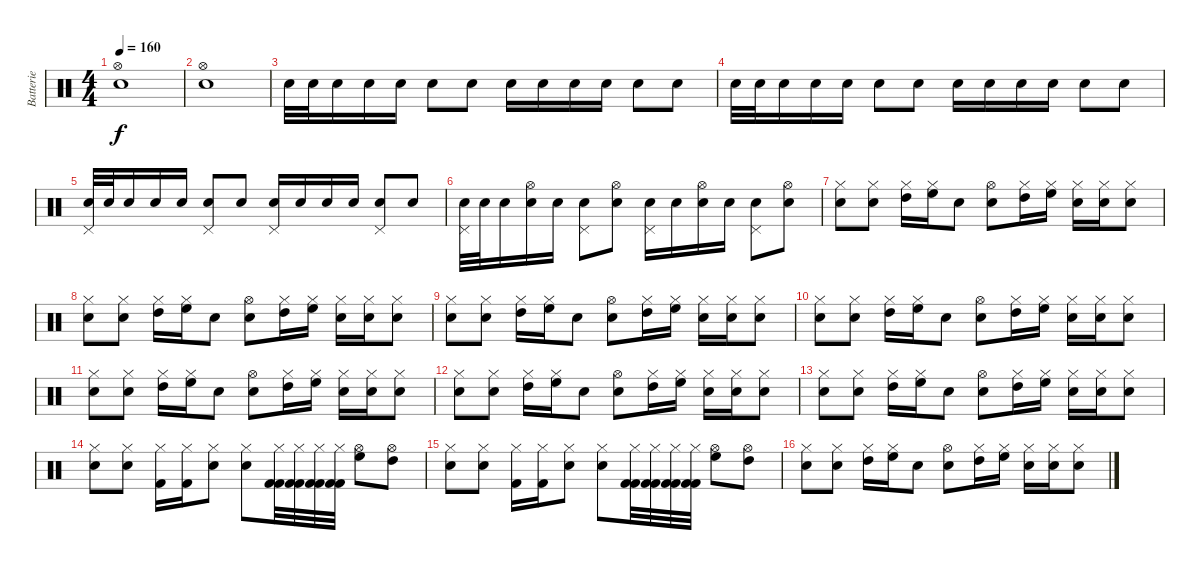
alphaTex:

\track ("Batterie" "Batterie") {instrument percussion}
\staff {score}
\articulation defaults
\ts (4 4)
\tempo 160
\clef neutral
\ks c
("Hi-Hat (open)" "Snare (hit) 2").1{dy f} |
("Hi-Hat (open)" "Snare (hit) 2").1 |
"Snare (hit) 2".32 "Snare (hit) 2".32 "Snare (hit) 2".16 "Snare (hit) 2".16 "Snare (hit) 2".16 "Snare (hit) 2".8 "Snare (hit) 2".8 "Snare (hit) 2".16 "Snare (hit) 2".16 "Snare (hit) 2".16 "Snare (hit) 2".16 "Snare (hit) 2".8 "Snare (hit) 2".8 |
"Snare (hit) 2".32 "Snare (hit) 2".32 "Snare (hit) 2".16 "Snare (hit) 2".16 "Snare (hit) 2".16 "Snare (hit) 2".8 "Snare (hit) 2".8 "Snare (hit) 2".16 "Snare (hit) 2".16 "Snare (hit) 2".16 "Snare (hit) 2".16 "Snare (hit) 2".8 "Snare (hit) 2".8 |
("Pedal Hi-Hat (hit)" "Snare (hit) 2").32 "Snare (hit) 2".32 "Snare (hit) 2".16 "Snare (hit) 2".16 "Snare (hit) 2".16 ("Pedal Hi-Hat (hit)" "Snare (hit) 2").8 "Snare (hit) 2".8 ("Pedal Hi-Hat (hit)" "Snare (hit) 2").16 "Snare (hit) 2".16 "Snare (hit) 2".16 "Snare (hit) 2".16 ("Pedal Hi-Hat (hit)" "Snare (hit) 2").8 "Snare (hit) 2".8 |
("Pedal Hi-Hat (hit)" "Snare (hit) 2").32 "Snare (hit) 2".32 "Snare (hit) 2".16 ("Hi-Hat (open)" "Snare (hit) 2").16 "Snare (hit) 2".16 ("Pedal Hi-Hat (hit)" "Snare (hit) 2").8 ("Hi-Hat (open)" "Snare (hit) 2").8 ("Pedal Hi-Hat (hit)" "Snare (hit) 2").16 "Snare (hit) 2".16 ("Hi-Hat (open)" "Snare (hit) 2").16 "Snare (hit) 2".16 ("Pedal Hi-Hat (hit)" "Snare (hit) 2").8 ("Hi-Hat (open)" "Snare (hit) 2").8 |
("Hi-Hat (closed)" "Snare (hit) 2").8 ("Hi-Hat (closed)" "Snare (hit) 2").8 ("Hi-Hat (closed)" "High Tom (hit)").16 ("Hi-Hat (closed)" "High Floor Tom (hit)").16 "Snare (hit) 2".8 ("Hi-Hat (open)" "Snare (hit) 2").8 ("Hi-Hat (closed)" "High Tom (hit)").16 ("Hi-Hat (closed)" "High Floor Tom (hit)").16 ("Hi-Hat (closed)" "Snare (hit) 2").16 ("Hi-Hat (closed)" "Snare (hit) 2").16 ("Hi-Hat (closed)" "Snare (hit) 2").8 |
("Hi-Hat (closed)" "Snare (hit) 2").8 ("Hi-Hat (closed)" "Snare (hit) 2").8 ("Hi-Hat (closed)" "High Tom (hit)").16 ("Hi-Hat (closed)" "High Floor Tom (hit)").16 "Snare (hit) 2".8 ("Hi-Hat (open)" "Snare (hit) 2").8 ("Hi-Hat (closed)" "High Tom (hit)").16 ("Hi-Hat (closed)" "High Floor Tom (hit)").16 ("Hi-Hat (closed)" "Snare (hit) 2").16 ("Hi-Hat (closed)" "Snare (hit) 2").16 ("Hi-Hat (closed)" "Snare (hit) 2").8 |
("Hi-Hat (closed)" "Snare (hit) 2").8 ("Hi-Hat (closed)" "Snare (hit) 2").8 ("Hi-Hat (closed)" "High Tom (hit)").16 ("Hi-Hat (closed)" "High Floor Tom (hit)").16 "Snare (hit) 2".8 ("Hi-Hat (open)" "Snare (hit) 2").8 ("Hi-Hat (closed)" "High Tom (hit)").16 ("Hi-Hat (closed)" "High Floor Tom (hit)").16 ("Hi-Hat (closed)" "Snare (hit) 2").16 ("Hi-Hat (closed)" "Snare (hit) 2").16 ("Hi-Hat (closed)" "Snare (hit) 2").8 |
("Hi-Hat (closed)" "Snare (hit) 2").8 ("Hi-Hat (closed)" "Snare (hit) 2").8 ("Hi-Hat (closed)" "High Tom (hit)").16 ("Hi-Hat (closed)" "High Floor Tom (hit)").16 "Snare (hit) 2".8 ("Hi-Hat (open)" "Snare (hit) 2").8 ("Hi-Hat (closed)" "High Tom (hit)").16 ("Hi-Hat (closed)" "High Floor Tom (hit)").16 ("Hi-Hat (closed)" "Snare (hit) 2").16 ("Hi-Hat (closed)" "Snare (hit) 2").16 ("Hi-Hat (closed)" "Snare (hit) 2").8 |
("Hi-Hat (closed)" "Snare (hit) 2").8 ("Hi-Hat (closed)" "Snare (hit) 2").8 ("Hi-Hat (closed)" "High Tom (hit)").16 ("Hi-Hat (closed)" "High Floor Tom (hit)").16 "Snare (hit) 2".8 ("Hi-Hat (open)" "Snare (hit) 2").8 ("Hi-Hat (closed)" "High Tom (hit)").16 ("Hi-Hat (closed)" "High Floor Tom (hit)").16 ("Hi-Hat (closed)" "Snare (hit) 2").16 ("Hi-Hat (closed)" "Snare (hit) 2").16 ("Hi-Hat (closed)" "Snare (hit) 2").8 |
("Hi-Hat (closed)" "Snare (hit) 2").8 ("Hi-Hat (closed)" "Snare (hit) 2").8 ("Hi-Hat (closed)" "High Tom (hit)").16 ("Hi-Hat (closed)" "High Floor Tom (hit)").16 "Snare (hit) 2".8 ("Hi-Hat (open)" "Snare (hit) 2").8 ("Hi-Hat (closed)" "High Tom (hit)").16 ("Hi-Hat (closed)" "High Floor Tom (hit)").16 ("Hi-Hat (closed)" "Snare (hit) 2").16 ("Hi-Hat (closed)" "Snare (hit) 2").16 ("Hi-Hat (closed)" "Snare (hit) 2").8 |
("Hi-Hat (closed)" "Snare (hit) 2").8 ("Hi-Hat (closed)" "Snare (hit) 2").8 ("Hi-Hat (closed)" "High Tom (hit)").16 ("Hi-Hat (closed)" "High Floor Tom (hit)").16 "Snare (hit) 2".8 ("Hi-Hat (open)" "Snare (hit) 2").8 ("Hi-Hat (closed)" "High Tom (hit)").16 ("Hi-Hat (closed)" "High Floor Tom (hit)").16 ("Hi-Hat (closed)" "Snare (hit) 2").16 ("Hi-Hat (closed)" "Snare (hit) 2").16 ("Hi-Hat (closed)" "Snare (hit) 2").8 |
("Hi-Hat (closed)" "Snare (hit) 2").8 ("Hi-Hat (closed)" "Snare (hit) 2").8 ("Hi-Hat (closed)" "Kick (hit) 2").16 ("Hi-Hat (closed)" "Kick (hit) 2").16 ("Hi-Hat (closed)" "Snare (hit) 2").8 ("Hi-Hat (closed)" "Snare (hit) 2").8 ("Kick (hit) 2" "Hi-Hat (closed)" "Kick (hit) 2").32 ("Kick (hit) 2" "Hi-Hat (closed)" "Kick (hit) 2").32 ("Kick (hit) 2" "Hi-Hat (closed)" "Kick (hit) 2").32 ("Kick (hit) 2" "Hi-Hat (closed)" "Kick (hit) 2").32 ("Hi-Hat (open)" "High Floor Tom (hit)").8 ("Hi-Hat (open)" "High Tom (hit)").8 |
("Hi-Hat (closed)" "Snare (hit) 2").8 ("Hi-Hat (closed)" "Snare (hit) 2").8 ("Hi-Hat (closed)" "Kick (hit) 2").16 ("Hi-Hat (closed)" "Kick (hit) 2").16 ("Hi-Hat (closed)" "Snare (hit) 2").8 ("Hi-Hat (closed)" "Snare (hit) 2").8 ("Kick (hit) 2" "Hi-Hat (closed)" "Kick (hit) 2").32 ("Kick (hit) 2" "Hi-Hat (closed)" "Kick (hit) 2").32 ("Kick (hit) 2" "Hi-Hat (closed)" "Kick (hit) 2").32 ("Kick (hit) 2" "Hi-Hat (closed)" "Kick (hit) 2").32 ("Hi-Hat (open)" "High Floor Tom (hit)").8 ("Hi-Hat (open)" "High Tom (hit)").8 |
("Hi-Hat (closed)" "Snare (hit) 2").8 ("Hi-Hat (closed)" "Snare (hit) 2").8 ("Hi-Hat (closed)" "High Tom (hit)").16 ("Hi-Hat (closed)" "High Floor Tom (hit)").16 "Snare (hit) 2".8 ("Hi-Hat (open)" "Snare (hit) 2").8 ("Hi-Hat (closed)" "High Tom (hit)").16 ("Hi-Hat (closed)" "High Floor Tom (hit)").16 ("Hi-Hat (closed)" "Snare (hit) 2").16 ("Hi-Hat (closed)" "Snare (hit) 2").16 ("Hi-Hat (closed)" "Snare (hit) 2").8
